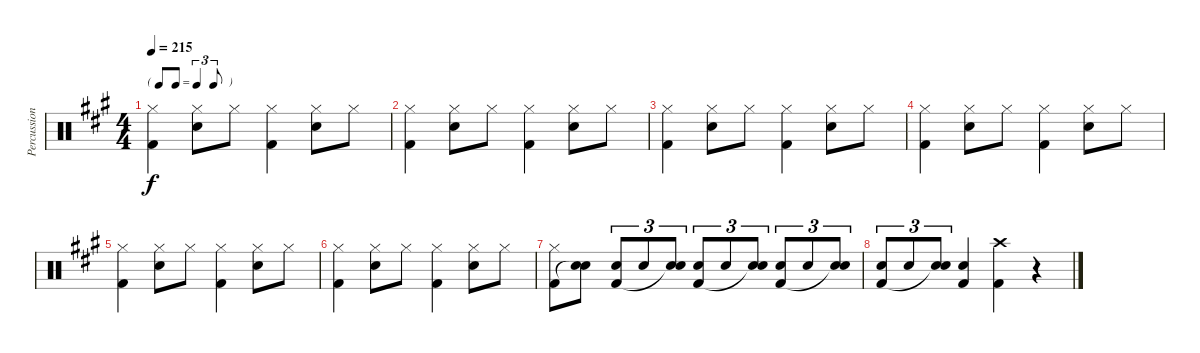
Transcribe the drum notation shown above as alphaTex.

\track ("Percussion" "Percussion") {instrument percussion}
\staff {score}
\articulation defaults
\ts (4 4)
\tf triplet8th
\tempo 215
\clef neutral
\ks a
("Hi-Hat (closed)" "Kick (hit) 2").4{dy f} ("Hi-Hat (closed)" "Snare (hit) 2").8 "Hi-Hat (closed)".8 ("Hi-Hat (closed)" "Kick (hit) 2").4 ("Hi-Hat (closed)" "Snare (hit) 2").8 "Hi-Hat (closed)".8 |
("Hi-Hat (closed)" "Kick (hit) 2").4 ("Hi-Hat (closed)" "Snare (hit) 2").8 "Hi-Hat (closed)".8 ("Hi-Hat (closed)" "Kick (hit) 2").4 ("Hi-Hat (closed)" "Snare (hit) 2").8 "Hi-Hat (closed)".8 |
("Hi-Hat (closed)" "Kick (hit) 2").4 ("Hi-Hat (closed)" "Snare (hit) 2").8 "Hi-Hat (closed)".8 ("Hi-Hat (closed)" "Kick (hit) 2").4 ("Hi-Hat (closed)" "Snare (hit) 2").8 "Hi-Hat (closed)".8 |
("Hi-Hat (closed)" "Kick (hit) 2").4 ("Hi-Hat (closed)" "Snare (hit) 2").8 "Hi-Hat (closed)".8 ("Hi-Hat (closed)" "Kick (hit) 2").4 ("Hi-Hat (closed)" "Snare (hit) 2").8 "Hi-Hat (closed)".8 |
("Hi-Hat (closed)" "Kick (hit) 2").4 ("Hi-Hat (closed)" "Snare (hit) 2").8 "Hi-Hat (closed)".8 ("Hi-Hat (closed)" "Kick (hit) 2").4 ("Hi-Hat (closed)" "Snare (hit) 2").8 "Hi-Hat (closed)".8 |
("Hi-Hat (closed)" "Kick (hit) 2").4 ("Hi-Hat (closed)" "Snare (hit) 2").8 "Hi-Hat (closed)".8 ("Hi-Hat (closed)" "Kick (hit) 2").4 ("Hi-Hat (closed)" "Snare (hit) 2").8 "Hi-Hat (closed)".8 |
("Hi-Hat (closed)" "Kick (hit) 2").8 ("Snare (hit) 2" "Snare (hit)"{t}).8 ("Snare (hit) 2" "Kick (hit) 2").8{tu (3 2)} "Snare (hit) 2".8{tu (3 2)} ("Snare (hit) 2" "Snare (hit)"{t}).8{tu (3 2)} ("Snare (hit) 2" "Kick (hit) 2").8{tu (3 2)} "Snare (hit) 2".8{tu (3 2)} ("Snare (hit) 2" "Snare (hit)"{t}).8{tu (3 2)} ("Snare (hit) 2" "Kick (hit) 2").8{tu (3 2)} "Snare (hit) 2".8{tu (3 2)} ("Snare (hit) 2" "Snare (hit)"{t}).8{tu (3 2)} |
("Snare (hit) 2" "Kick (hit) 2").8{tu (3 2)} "Snare (hit) 2".8{tu (3 2)} ("Snare (hit) 2" "Snare (hit)"{t}).8{tu (3 2)} ("Snare (hit) 2" "Kick (hit) 2").4 ("Crash high (hit)" "Kick (hit) 2").4 r.4
